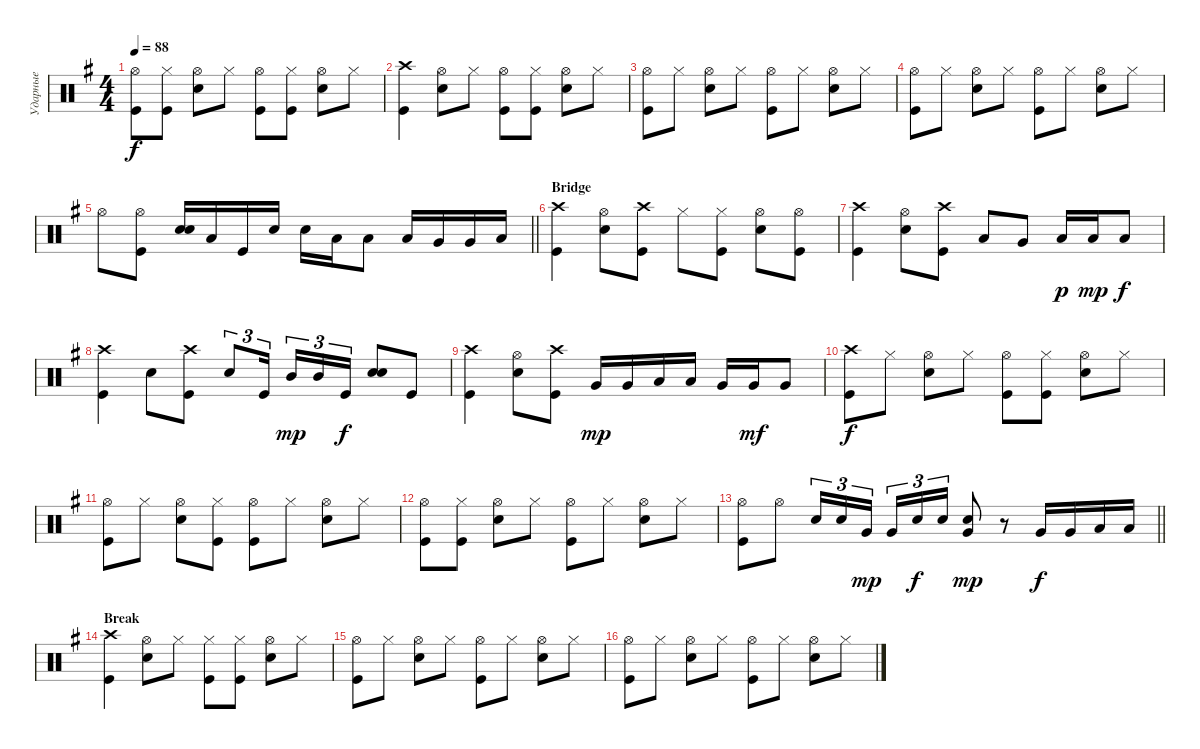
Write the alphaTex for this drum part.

\track ("Ударные" "Ударные") {instrument percussion}
\staff {score}
\articulation defaults
\ts (4 4)
\tempo 88
\clef neutral
\ks eminor
("Kick (hit)" "Hi-Hat (open)").8{dy f} ("Hi-Hat (closed)" "Kick (hit)").8 ("Hi-Hat (open)" "Snare (hit) 2").8 "Hi-Hat (closed)".8 ("Kick (hit)" "Hi-Hat (open)").8 ("Hi-Hat (closed)" "Kick (hit)").8 ("Hi-Hat (open)" "Snare (hit) 2").8 "Hi-Hat (closed)".8 |
("Kick (hit)" "Crash high (hit)").4 ("Snare (hit) 2" "Hi-Hat (open)").8 "Hi-Hat (closed)".8 ("Hi-Hat (open)" "Kick (hit)").8 ("Hi-Hat (closed)" "Kick (hit)").8 ("Snare (hit) 2" "Hi-Hat (open)").8 "Hi-Hat (closed)".8 |
("Kick (hit)" "Hi-Hat (open)").8 "Hi-Hat (closed)".8 ("Hi-Hat (open)" "Snare (hit) 2").8 "Hi-Hat (closed)".8 ("Kick (hit)" "Hi-Hat (open)").8 "Hi-Hat (closed)".8 ("Hi-Hat (open)" "Snare (hit) 2").8 "Hi-Hat (closed)".8 |
("Kick (hit)" "Hi-Hat (open)").8 "Hi-Hat (closed)".8 ("Hi-Hat (open)" "Snare (hit) 2").8 "Hi-Hat (closed)".8 ("Kick (hit)" "Hi-Hat (open)").8 "Hi-Hat (closed)".8 ("Hi-Hat (open)" "Snare (hit) 2").8 "Hi-Hat (closed)".8 |
\barLineRight lightlight "Hi-Hat (open)".8
("Hi-Hat (open)" "Kick (hit)").8 ("Snare (hit) 2" "Snare (hit) 2").16{bd 480} "Low Floor Tom (hit)".16 "Kick (hit)".16 "Snare (hit) 2".16 "Snare (hit) 2".16 "Low Floor Tom (hit)".16 "Low Tom (hit)".8 "Low Tom (hit)".16 "Very Low Tom (hit)".16 "Very Low Tom (hit)".16 "Low Floor Tom (hit)".16 |
\section ("" "Bridge")
("Kick (hit)" "Crash high (hit)").4 ("Snare (hit) 2" "Hi-Hat (open)").8 ("Kick (hit)" "Crash high (hit)").8 "Hi-Hat (closed)".8 ("Hi-Hat (closed)" "Kick (hit)").8 ("Hi-Hat (open)" "Snare (hit) 2").8 ("Hi-Hat (open)" "Kick (hit)").8 |
("Kick (hit)" "Crash high (hit)").4 ("Snare (hit) 2" "Hi-Hat (open)").8 ("Kick (hit)" "Crash high (hit)").8 "Low Tom (hit)".8 "Very Low Tom (hit)".8 "Low Floor Tom (hit)".16{dy p} "Low Floor Tom (hit)".16{dy mp} "Low Floor Tom (hit)".8{dy f} |
("Kick (hit)" "Crash high (hit)").4 "Snare (hit) 2".8 ("Kick (hit)" "Crash high (hit)").8 "Snare (hit) 2".8{tu (3 2)} "Kick (hit)".16{tu (3 2) beam splitsecondary} "Mid Tom (hit)".16{tu (3 2) dy mp} "Mid Tom (hit)".16{tu (3 2)} "Kick (hit)".16{tu (3 2) dy f} ("Snare (hit) 2" "Snare (hit) 2").8{bd 240} "Kick (hit)".8 |
("Kick (hit)" "Crash high (hit)").4 ("Snare (hit) 2" "Hi-Hat (open)").8 ("Kick (hit)" "Crash high (hit)").8 "Very Low Tom (hit)".16{dy mp} "Very Low Tom (hit)".16 "Low Floor Tom (hit)".16 "Low Floor Tom (hit)".16 "Very Low Tom (hit)".16 "Very Low Tom (hit)".16{dy mf} "Very Low Tom (hit)".8 |
("Kick (hit)" "Crash high (hit)").8{dy f} "Hi-Hat (closed)".8 ("Hi-Hat (open)" "Snare (hit) 2").8 "Hi-Hat (closed)".8 ("Kick (hit)" "Hi-Hat (open)").8 ("Hi-Hat (closed)" "Kick (hit)").8 ("Hi-Hat (open)" "Snare (hit) 2").8 "Hi-Hat (closed)".8 |
("Kick (hit)" "Hi-Hat (open)").8 "Hi-Hat (closed)".8 ("Hi-Hat (open)" "Snare (hit) 2").8 ("Hi-Hat (closed)" "Kick (hit)").8 ("Kick (hit)" "Hi-Hat (open)").8 "Hi-Hat (closed)".8 ("Hi-Hat (open)" "Snare (hit) 2").8 "Hi-Hat (closed)".8 |
("Kick (hit)" "Hi-Hat (open)").8 ("Hi-Hat (closed)" "Kick (hit)").8 ("Hi-Hat (open)" "Snare (hit) 2").8 "Hi-Hat (closed)".8 ("Kick (hit)" "Hi-Hat (open)").8 "Hi-Hat (closed)".8 ("Hi-Hat (open)" "Snare (hit) 2").8 "Hi-Hat (closed)".8 |
\barLineRight lightlight
("Kick (hit)" "Hi-Hat (open)").8 "Hi-Hat (open)".8 "Snare (hit) 2".16{tu (3 2)} "Snare (hit) 2".16{tu (3 2)} "Very Low Tom (hit)".16{tu (3 2) dy mp beam splitsecondary} "Very Low Tom (hit)".16{tu (3 2)} "Snare (hit) 2".16{tu (3 2) dy f} "Snare (hit) 2".16{tu (3 2)} ("Snare (hit) 2" "Very Low Tom (hit)").8{dy mp} r.8 "Very Low Tom (hit)".16{dy f} "Very Low Tom (hit)".16 "Low Floor Tom (hit)".16 "Low Floor Tom (hit)".16 |
\section ("" "Break")
("Kick (hit)" "Crash high (hit)").4 ("Snare (hit) 2" "Hi-Hat (open)").8 "Hi-Hat (closed)".8 ("Hi-Hat (closed)" "Kick (hit)").8 ("Hi-Hat (closed)" "Kick (hit)").8 ("Snare (hit) 2" "Hi-Hat (open)").8 "Hi-Hat (closed)".8 |
("Kick (hit)" "Hi-Hat (open)").8 "Hi-Hat (closed)".8 ("Hi-Hat (open)" "Snare (hit) 2").8 "Hi-Hat (closed)".8 ("Kick (hit)" "Hi-Hat (open)").8 "Hi-Hat (closed)".8 ("Hi-Hat (open)" "Snare (hit) 2").8 "Hi-Hat (closed)".8 |
("Kick (hit)" "Hi-Hat (open)").8 "Hi-Hat (closed)".8 ("Hi-Hat (open)" "Snare (hit) 2").8 "Hi-Hat (closed)".8 ("Kick (hit)" "Hi-Hat (open)").8 "Hi-Hat (closed)".8 ("Hi-Hat (open)" "Snare (hit) 2").8 "Hi-Hat (closed)".8
